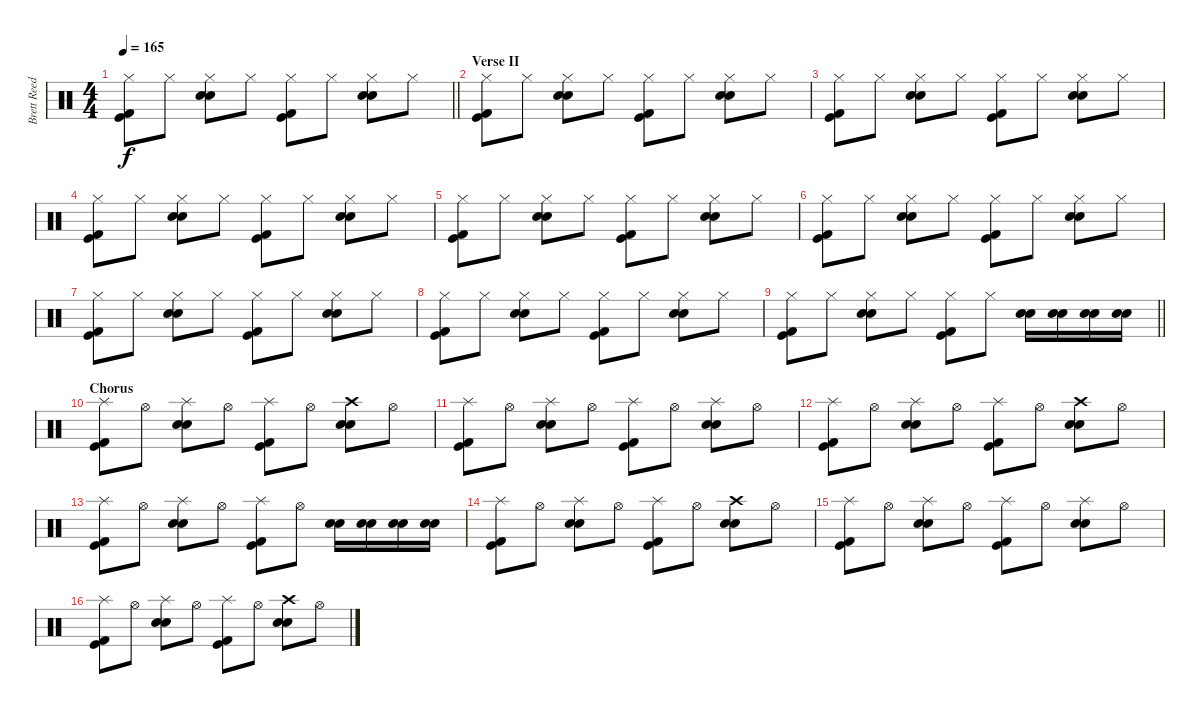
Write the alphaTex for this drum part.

\track ("Brett Reed" "Brett Reed") {instrument percussion}
\staff {score}
\articulation defaults
\ts (4 4)
\tempo 165
\clef neutral
\barLineRight lightlight
\ks c
("Hi-Hat (closed)" "Kick (hit) 2" "Kick (hit)").8{dy f} "Hi-Hat (closed)".8 ("Hi-Hat (closed)" "Electric Snare (hit)" "Snare (hit) 2").8 "Hi-Hat (closed)".8 ("Hi-Hat (closed)" "Kick (hit) 2" "Kick (hit)").8 "Hi-Hat (closed)".8 ("Hi-Hat (closed)" "Electric Snare (hit)" "Snare (hit) 2").8 "Hi-Hat (closed)".8 |
\section ("" "Verse II")
("Hi-Hat (closed)" "Kick (hit) 2" "Kick (hit)").8 "Hi-Hat (closed)".8 ("Hi-Hat (closed)" "Electric Snare (hit)" "Snare (hit) 2").8 "Hi-Hat (closed)".8 ("Hi-Hat (closed)" "Kick (hit) 2" "Kick (hit)").8 "Hi-Hat (closed)".8 ("Hi-Hat (closed)" "Electric Snare (hit)" "Snare (hit) 2").8 "Hi-Hat (closed)".8 |
("Hi-Hat (closed)" "Kick (hit) 2" "Kick (hit)").8 "Hi-Hat (closed)".8 ("Hi-Hat (closed)" "Electric Snare (hit)" "Snare (hit) 2").8 "Hi-Hat (closed)".8 ("Hi-Hat (closed)" "Kick (hit) 2" "Kick (hit)").8 "Hi-Hat (closed)".8 ("Hi-Hat (closed)" "Electric Snare (hit)" "Snare (hit) 2").8 "Hi-Hat (closed)".8 |
("Hi-Hat (closed)" "Kick (hit) 2" "Kick (hit)").8 "Hi-Hat (closed)".8 ("Hi-Hat (closed)" "Electric Snare (hit)" "Snare (hit) 2").8 "Hi-Hat (closed)".8 ("Hi-Hat (closed)" "Kick (hit) 2" "Kick (hit)").8 "Hi-Hat (closed)".8 ("Hi-Hat (closed)" "Electric Snare (hit)" "Snare (hit) 2").8 "Hi-Hat (closed)".8 |
("Hi-Hat (closed)" "Kick (hit) 2" "Kick (hit)").8 "Hi-Hat (closed)".8 ("Hi-Hat (closed)" "Electric Snare (hit)" "Snare (hit) 2").8 "Hi-Hat (closed)".8 ("Hi-Hat (closed)" "Kick (hit) 2" "Kick (hit)").8 "Hi-Hat (closed)".8 ("Hi-Hat (closed)" "Electric Snare (hit)" "Snare (hit) 2").8 "Hi-Hat (closed)".8 |
("Hi-Hat (closed)" "Kick (hit) 2" "Kick (hit)").8 "Hi-Hat (closed)".8 ("Hi-Hat (closed)" "Electric Snare (hit)" "Snare (hit) 2").8 "Hi-Hat (closed)".8 ("Hi-Hat (closed)" "Kick (hit) 2" "Kick (hit)").8 "Hi-Hat (closed)".8 ("Hi-Hat (closed)" "Electric Snare (hit)" "Snare (hit) 2").8 "Hi-Hat (closed)".8 |
("Hi-Hat (closed)" "Kick (hit) 2" "Kick (hit)").8 "Hi-Hat (closed)".8 ("Hi-Hat (closed)" "Electric Snare (hit)" "Snare (hit) 2").8 "Hi-Hat (closed)".8 ("Hi-Hat (closed)" "Kick (hit) 2" "Kick (hit)").8 "Hi-Hat (closed)".8 ("Hi-Hat (closed)" "Electric Snare (hit)" "Snare (hit) 2").8 "Hi-Hat (closed)".8 |
("Hi-Hat (closed)" "Kick (hit) 2" "Kick (hit)").8 "Hi-Hat (closed)".8 ("Hi-Hat (closed)" "Electric Snare (hit)" "Snare (hit) 2").8 "Hi-Hat (closed)".8 ("Hi-Hat (closed)" "Kick (hit) 2" "Kick (hit)").8 "Hi-Hat (closed)".8 ("Hi-Hat (closed)" "Electric Snare (hit)" "Snare (hit) 2").8 "Hi-Hat (closed)".8 |
\barLineRight lightlight
("Hi-Hat (closed)" "Kick (hit) 2" "Kick (hit)").8 "Hi-Hat (closed)".8 ("Hi-Hat (closed)" "Electric Snare (hit)" "Snare (hit) 2").8 "Hi-Hat (closed)".8 ("Hi-Hat (closed)" "Kick (hit) 2" "Kick (hit)").8 "Hi-Hat (closed)".8 ("Electric Snare (hit)" "Snare (hit) 2").16 ("Electric Snare (hit)" "Snare (hit) 2").16 ("Electric Snare (hit)" "Snare (hit) 2").16 ("Electric Snare (hit)" "Snare (hit) 2").16 |
\section ("" "Chorus")
("Splash (hit)" "Kick (hit) 2" "Kick (hit)").8 "Hi-Hat (open)".8 ("Splash (hit)" "Electric Snare (hit)" "Snare (hit) 2").8 "Hi-Hat (open)".8 ("Splash (hit)" "Kick (hit) 2" "Kick (hit)").8 "Hi-Hat (open)".8 ("Crash high (hit)" "Electric Snare (hit)" "Snare (hit) 2").8 "Hi-Hat (open)".8 |
("Splash (hit)" "Kick (hit) 2" "Kick (hit)").8 "Hi-Hat (open)".8 ("Splash (hit)" "Electric Snare (hit)" "Snare (hit) 2").8 "Hi-Hat (open)".8 ("Splash (hit)" "Kick (hit) 2" "Kick (hit)").8 "Hi-Hat (open)".8 ("Splash (hit)" "Electric Snare (hit)" "Snare (hit) 2").8 "Hi-Hat (open)".8 |
("Splash (hit)" "Kick (hit) 2" "Kick (hit)").8 "Hi-Hat (open)".8 ("Splash (hit)" "Electric Snare (hit)" "Snare (hit) 2").8 "Hi-Hat (open)".8 ("Splash (hit)" "Kick (hit) 2" "Kick (hit)").8 "Hi-Hat (open)".8 ("Crash high (hit)" "Electric Snare (hit)" "Snare (hit) 2").8 "Hi-Hat (open)".8 |
("Splash (hit)" "Kick (hit) 2" "Kick (hit)").8 "Hi-Hat (open)".8 ("Splash (hit)" "Electric Snare (hit)" "Snare (hit) 2").8 "Hi-Hat (open)".8 ("Splash (hit)" "Kick (hit) 2" "Kick (hit)").8 "Hi-Hat (open)".8 ("Electric Snare (hit)" "Snare (hit) 2").16 ("Electric Snare (hit)" "Snare (hit) 2").16 ("Electric Snare (hit)" "Snare (hit) 2").16 ("Electric Snare (hit)" "Snare (hit) 2").16 |
("Splash (hit)" "Kick (hit) 2" "Kick (hit)").8 "Hi-Hat (open)".8 ("Splash (hit)" "Electric Snare (hit)" "Snare (hit) 2").8 "Hi-Hat (open)".8 ("Splash (hit)" "Kick (hit) 2" "Kick (hit)").8 "Hi-Hat (open)".8 ("Crash high (hit)" "Electric Snare (hit)" "Snare (hit) 2").8 "Hi-Hat (open)".8 |
("Splash (hit)" "Kick (hit) 2" "Kick (hit)").8 "Hi-Hat (open)".8 ("Splash (hit)" "Electric Snare (hit)" "Snare (hit) 2").8 "Hi-Hat (open)".8 ("Splash (hit)" "Kick (hit) 2" "Kick (hit)").8 "Hi-Hat (open)".8 ("Splash (hit)" "Electric Snare (hit)" "Snare (hit) 2").8 "Hi-Hat (open)".8 |
("Splash (hit)" "Kick (hit) 2" "Kick (hit)").8 "Hi-Hat (open)".8 ("Splash (hit)" "Electric Snare (hit)" "Snare (hit) 2").8 "Hi-Hat (open)".8 ("Splash (hit)" "Kick (hit) 2" "Kick (hit)").8 "Hi-Hat (open)".8 ("Crash high (hit)" "Electric Snare (hit)" "Snare (hit) 2").8 "Hi-Hat (open)".8
